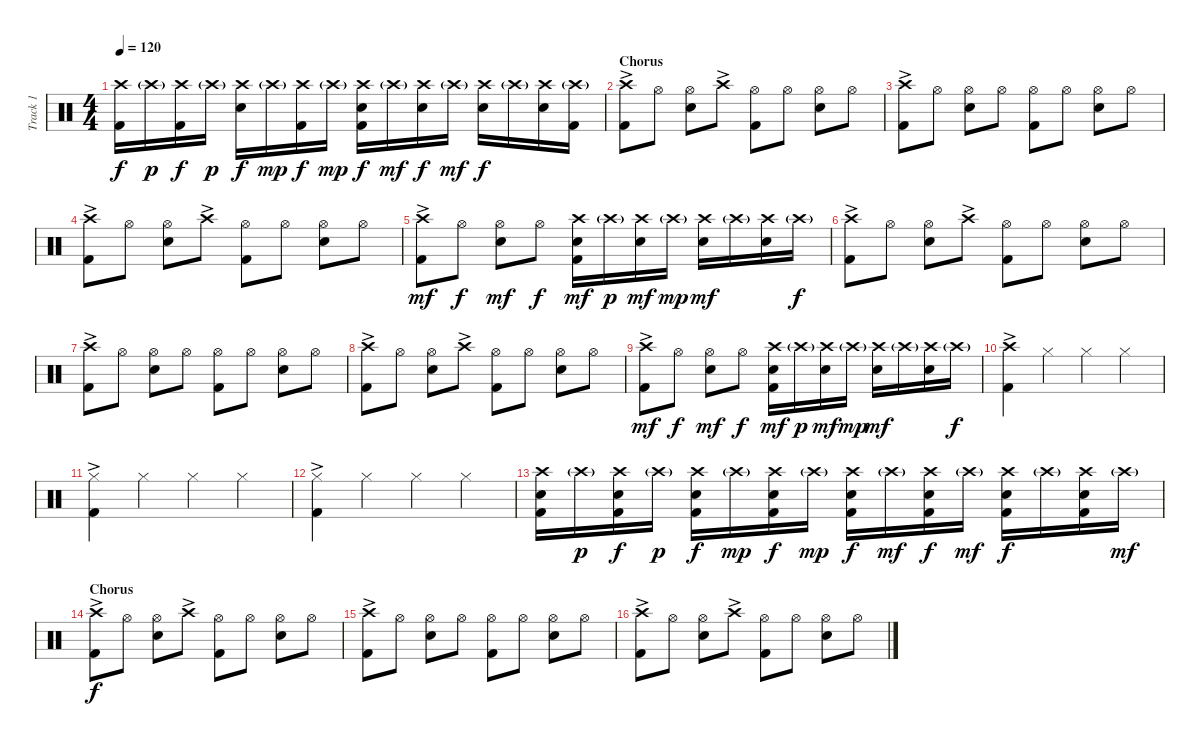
\track ("Track 1" "Track 1") {instrument percussion}
\staff {score}
\articulation defaults
\ts (4 4)
\tempo 120
\clef neutral
\ks c
("Crash high (hit)" "Kick (hit) 2").16{dy f} "Crash high (hit)"{g}.16{dy p} ("Crash high (hit)" "Kick (hit) 2").16{dy f} "Crash high (hit)"{g}.16{dy p} ("Crash high (hit)" "Snare (hit) 2").16{dy f} "Crash high (hit)"{g}.16{dy mp} ("Crash high (hit)" "Kick (hit) 2").16{dy f} "Crash high (hit)"{g}.16{dy mp} ("Crash high (hit)" "Snare (hit) 2" "Kick (hit) 2").16{dy f} "Crash high (hit)"{g}.16{dy mf} ("Crash high (hit)" "Snare (hit) 2").16{dy f} "Crash high (hit)"{g}.16{dy mf} ("Crash high (hit)" "Snare (hit) 2").16{dy f} "Crash high (hit)"{g}.16 ("Crash high (hit)" "Snare (hit) 2").16 ("Crash high (hit)"{g} "Kick (hit) 2").16 |
\section ("" "Chorus")
("Crash high (hit)"{ac} "Kick (hit) 2").8 "Hi-Hat (open)".8 ("Hi-Hat (open)" "Snare (hit) 2").8 "Crash high (hit)"{ac}.8 ("Hi-Hat (open)" "Kick (hit) 2").8 "Hi-Hat (open)".8 ("Hi-Hat (open)" "Snare (hit) 2").8 "Hi-Hat (open)".8 |
("Crash high (hit)"{ac} "Kick (hit) 2").8 "Hi-Hat (open)".8 ("Hi-Hat (open)" "Snare (hit) 2").8 "Hi-Hat (open)".8 ("Hi-Hat (open)" "Kick (hit) 2").8 "Hi-Hat (open)".8 ("Hi-Hat (open)" "Snare (hit) 2").8 "Hi-Hat (open)".8 |
("Crash high (hit)"{ac} "Kick (hit) 2").8 "Hi-Hat (open)".8 ("Hi-Hat (open)" "Snare (hit) 2").8 "Crash high (hit)"{ac}.8 ("Hi-Hat (open)" "Kick (hit) 2").8 "Hi-Hat (open)".8 ("Hi-Hat (open)" "Snare (hit) 2").8 "Hi-Hat (open)".8 |
("Crash high (hit)"{ac} "Kick (hit) 2").8{dy mf} "Hi-Hat (open)".8{dy f} ("Hi-Hat (open)" "Snare (hit) 2").8{dy mf} "Hi-Hat (open)".8{dy f} ("Crash high (hit)" "Snare (hit) 2" "Kick (hit) 2").16{dy mf} "Crash high (hit)"{g}.16{dy p} ("Crash high (hit)" "Snare (hit) 2").16{dy mf} "Crash high (hit)"{g}.16{dy mp} ("Crash high (hit)" "Snare (hit) 2").16{dy mf} "Crash high (hit)"{g}.16 ("Crash high (hit)" "Snare (hit) 2").16 "Crash high (hit)"{g}.16{dy f} |
("Crash high (hit)"{ac} "Kick (hit) 2").8 "Hi-Hat (open)".8 ("Hi-Hat (open)" "Snare (hit) 2").8 "Crash high (hit)"{ac}.8 ("Hi-Hat (open)" "Kick (hit) 2").8 "Hi-Hat (open)".8 ("Hi-Hat (open)" "Snare (hit) 2").8 "Hi-Hat (open)".8 |
("Crash high (hit)"{ac} "Kick (hit) 2").8 "Hi-Hat (open)".8 ("Hi-Hat (open)" "Snare (hit) 2").8 "Hi-Hat (open)".8 ("Hi-Hat (open)" "Kick (hit) 2").8 "Hi-Hat (open)".8 ("Hi-Hat (open)" "Snare (hit) 2").8 "Hi-Hat (open)".8 |
("Crash high (hit)"{ac} "Kick (hit) 2").8 "Hi-Hat (open)".8 ("Hi-Hat (open)" "Snare (hit) 2").8 "Crash high (hit)"{ac}.8 ("Hi-Hat (open)" "Kick (hit) 2").8 "Hi-Hat (open)".8 ("Hi-Hat (open)" "Snare (hit) 2").8 "Hi-Hat (open)".8 |
("Crash high (hit)"{ac} "Kick (hit) 2").8{dy mf} "Hi-Hat (open)".8{dy f} ("Hi-Hat (open)" "Snare (hit) 2").8{dy mf} "Hi-Hat (open)".8{dy f} ("Crash high (hit)" "Snare (hit) 2" "Kick (hit) 2").16{dy mf} "Crash high (hit)"{g}.16{dy p} ("Crash high (hit)" "Snare (hit) 2").16{dy mf} "Crash high (hit)"{g}.16{dy mp} ("Crash high (hit)" "Snare (hit) 2").16{dy mf} "Crash high (hit)"{g}.16 ("Crash high (hit)" "Snare (hit) 2").16 "Crash high (hit)"{g}.16{dy f} |
("Crash high (hit)"{ac} "Kick (hit) 2").4 "Hi-Hat (closed)".4 "Hi-Hat (closed)".4 "Hi-Hat (closed)".4 |
("Hi-Hat (closed)"{ac} "Kick (hit) 2").4 "Hi-Hat (closed)".4 "Hi-Hat (closed)".4 "Hi-Hat (closed)".4 |
("Hi-Hat (closed)"{ac} "Kick (hit) 2").4 "Hi-Hat (closed)".4 "Hi-Hat (closed)".4 "Hi-Hat (closed)".4 |
("Crash high (hit)" "Snare (hit) 2" "Kick (hit) 2").16 "Crash high (hit)"{g}.16{dy p} ("Crash high (hit)" "Snare (hit) 2" "Kick (hit) 2").16{dy f} "Crash high (hit)"{g}.16{dy p} ("Crash high (hit)" "Snare (hit) 2" "Kick (hit) 2").16{dy f} "Crash high (hit)"{g}.16{dy mp} ("Crash high (hit)" "Snare (hit) 2" "Kick (hit) 2").16{dy f} "Crash high (hit)"{g}.16{dy mp} ("Crash high (hit)" "Snare (hit) 2" "Kick (hit) 2").16{dy f} "Crash high (hit)"{g}.16{dy mf} ("Crash high (hit)" "Snare (hit) 2" "Kick (hit) 2").16{dy f} "Crash high (hit)"{g}.16{dy mf} ("Crash high (hit)" "Snare (hit) 2" "Kick (hit) 2").16{dy f} "Crash high (hit)"{g}.16 ("Crash high (hit)" "Snare (hit) 2" "Kick (hit) 2").16 "Crash high (hit)"{g}.16{dy mf} |
\section ("" "Chorus")
("Crash high (hit)"{ac} "Kick (hit) 2").8{dy f} "Hi-Hat (open)".8 ("Hi-Hat (open)" "Snare (hit) 2").8 "Crash high (hit)"{ac}.8 ("Hi-Hat (open)" "Kick (hit) 2").8 "Hi-Hat (open)".8 ("Hi-Hat (open)" "Snare (hit) 2").8 "Hi-Hat (open)".8 |
("Crash high (hit)"{ac} "Kick (hit) 2").8 "Hi-Hat (open)".8 ("Hi-Hat (open)" "Snare (hit) 2").8 "Hi-Hat (open)".8 ("Hi-Hat (open)" "Kick (hit) 2").8 "Hi-Hat (open)".8 ("Hi-Hat (open)" "Snare (hit) 2").8 "Hi-Hat (open)".8 |
("Crash high (hit)"{ac} "Kick (hit) 2").8 "Hi-Hat (open)".8 ("Hi-Hat (open)" "Snare (hit) 2").8 "Crash high (hit)"{ac}.8 ("Hi-Hat (open)" "Kick (hit) 2").8 "Hi-Hat (open)".8 ("Hi-Hat (open)" "Snare (hit) 2").8 "Hi-Hat (open)".8
